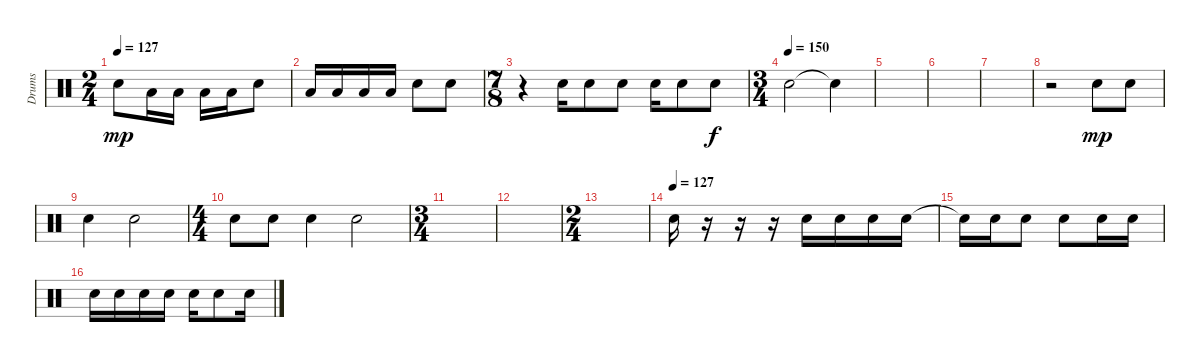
\track ("Drums" "Drums") {instrument percussion}
\staff {score}
\articulation defaults
\ts (2 4)
\tempo 127
\clef neutral
\ks c "Snare (hit) 2".8{dy mp} "Low Tom (hit)".16 "Low Tom (hit)".16 "Low Tom (hit)".16 "Low Tom (hit)".16 "Snare (hit) 2".8
|
"Low Tom (hit)".16 "Low Tom (hit)".16 "Low Tom (hit)".16 "Low Tom (hit)".16 "Snare (hit) 2".8 "Snare (hit) 2".8 |
\ts (7 8)
r.4 "Snare (hit) 2".16 "Snare (hit) 2".8 "Snare (hit) 2".8 "Snare (hit) 2".16 "Snare (hit) 2".8 "Snare (hit) 2".8{dy f} |
\ts (3 4)
\tempo (150)
"Snare (hit) 2".2 "Snare (hit)"{t}.4 |
|
|
|
r.2 "Snare (hit) 2".8{dy mp} "Snare (hit) 2".8 |
"Snare (hit) 2".4 "Snare (hit) 2".2 |
\ts (4 4)
"Snare (hit) 2".8 "Snare (hit) 2".8 "Snare (hit) 2".4 "Snare (hit) 2".2 |
\ts (3 4)
|
|
\ts (2 4)
|
\tempo 120
\tempo (127)
"Snare (hit) 2".16 r.16 r.16 r.16 "Snare (hit) 2".16 "Snare (hit) 2".16 "Snare (hit) 2".16 "Snare (hit) 2".16 |
"Snare (hit)"{t}.16 "Snare (hit) 2".16 "Snare (hit) 2".8 "Snare (hit) 2".8 "Snare (hit) 2".16 "Snare (hit) 2".16 |
"Snare (hit) 2".16 "Snare (hit) 2".16 "Snare (hit) 2".16 "Snare (hit) 2".16 "Snare (hit) 2".16 "Snare (hit) 2".8 "Snare (hit) 2".16
